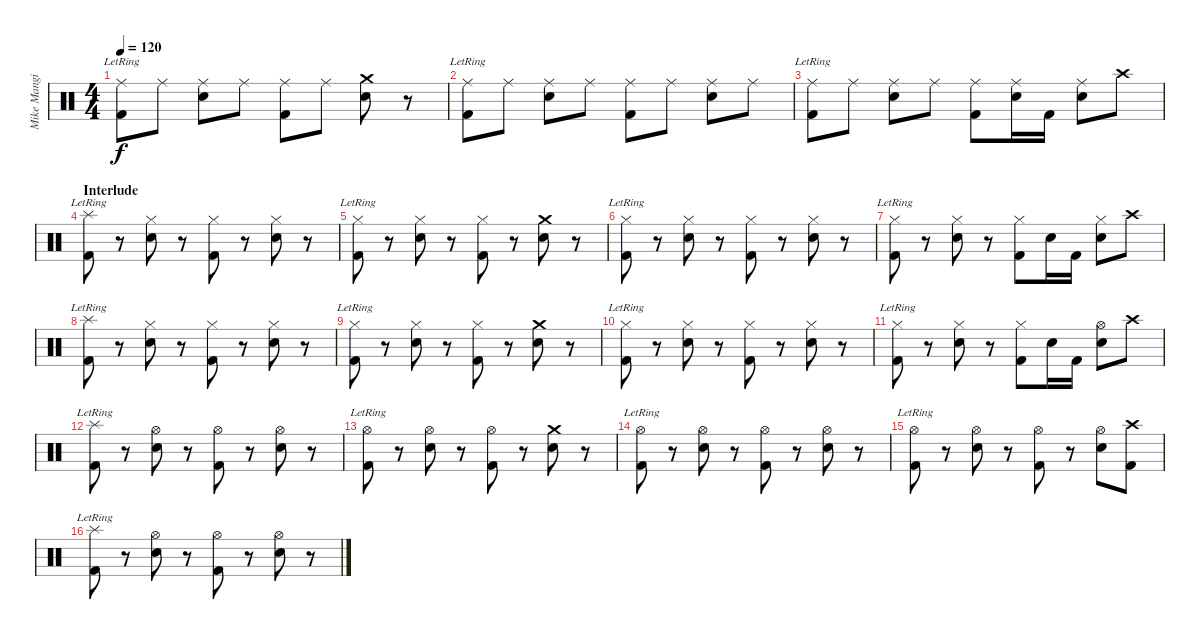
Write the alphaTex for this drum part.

\track ("Mike Mangini" "Mike Mangi") {instrument percussion}
\staff {score}
\articulation defaults
\ts (4 4)
\tempo 120
\clef neutral
\ks c
("Ride (middle)" "Kick (hit) 2"{lr}).8{dy f} "Ride (middle)".8 ("Ride (middle)" "Snare (hit) 2").8 "Ride (middle)".8 ("Ride (middle)" "Kick (hit) 2").8 "Ride (middle)".8 ("Crash medium (hit)" "Snare (hit) 2").8 r.8 |
("Ride (middle)" "Kick (hit) 2"{lr}).8 "Ride (middle)".8 ("Ride (middle)" "Snare (hit) 2").8 "Ride (middle)".8 ("Ride (middle)" "Kick (hit) 2").8 "Ride (middle)".8 ("Ride (middle)" "Snare (hit) 2").8 "Ride (middle)".8 |
("Ride (middle)" "Kick (hit) 2"{lr}).8 "Ride (middle)".8 ("Ride (middle)" "Snare (hit) 2").8 "Ride (middle)".8 ("Ride (middle)" "Kick (hit) 2").8 ("Ride (middle)" "Snare (hit) 2").16 "Kick (hit) 2".16 ("Ride (middle)" "Snare (hit) 2").8 "Crash high (hit)".8 |
\section ("" "Interlude")
("Splash (hit)" "Kick (hit) 2"{lr}).8 r.8 ("Hi-Hat (closed)" "Snare (hit) 2").8 r.8 ("Hi-Hat (closed)" "Kick (hit) 2").8 r.8 ("Hi-Hat (closed)" "Snare (hit) 2").8 r.8 |
("Hi-Hat (closed)" "Kick (hit) 2"{lr}).8 r.8 ("Hi-Hat (closed)" "Snare (hit) 2").8 r.8 ("Hi-Hat (closed)" "Kick (hit) 2").8 r.8 ("Crash medium (hit)" "Snare (hit) 2").8 r.8 |
("Hi-Hat (closed)" "Kick (hit) 2"{lr}).8 r.8 ("Hi-Hat (closed)" "Snare (hit) 2").8 r.8 ("Hi-Hat (closed)" "Kick (hit) 2").8 r.8 ("Hi-Hat (closed)" "Snare (hit) 2").8 r.8 |
("Hi-Hat (closed)" "Kick (hit) 2"{lr}).8 r.8 ("Hi-Hat (closed)" "Snare (hit) 2").8 r.8 ("Hi-Hat (closed)" "Kick (hit) 2").8 "Snare (hit) 2".16 "Kick (hit) 2".16 ("Hi-Hat (closed)" "Snare (hit) 2").8 "Crash high (hit)".8 |
("Splash (hit)" "Kick (hit) 2"{lr}).8 r.8 ("Hi-Hat (closed)" "Snare (hit) 2").8 r.8 ("Hi-Hat (closed)" "Kick (hit) 2").8 r.8 ("Hi-Hat (closed)" "Snare (hit) 2").8 r.8 |
("Hi-Hat (closed)" "Kick (hit) 2"{lr}).8 r.8 ("Hi-Hat (closed)" "Snare (hit) 2").8 r.8 ("Hi-Hat (closed)" "Kick (hit) 2").8 r.8 ("Crash medium (hit)" "Snare (hit) 2").8 r.8 |
("Hi-Hat (closed)" "Kick (hit) 2"{lr}).8 r.8 ("Hi-Hat (closed)" "Snare (hit) 2").8 r.8 ("Hi-Hat (closed)" "Kick (hit) 2").8 r.8 ("Hi-Hat (closed)" "Snare (hit) 2").8 r.8 |
("Hi-Hat (closed)" "Kick (hit) 2"{lr}).8 r.8 ("Hi-Hat (closed)" "Snare (hit) 2").8 r.8 ("Hi-Hat (closed)" "Kick (hit) 2").8 "Snare (hit) 2".16 "Kick (hit) 2".16 ("Hi-Hat (open)" "Snare (hit) 2").8 "Crash high (hit)".8 |
("Splash (hit)" "Kick (hit) 2"{lr}).8 r.8 ("Hi-Hat (open)" "Snare (hit) 2").8 r.8 ("Hi-Hat (open)" "Kick (hit) 2").8 r.8 ("Hi-Hat (open)" "Snare (hit) 2").8 r.8 |
("Hi-Hat (open)" "Kick (hit) 2"{lr}).8 r.8 ("Hi-Hat (open)" "Snare (hit) 2").8 r.8 ("Hi-Hat (open)" "Kick (hit) 2").8 r.8 ("Crash medium (hit)" "Snare (hit) 2").8 r.8 |
("Hi-Hat (open)" "Kick (hit) 2"{lr}).8 r.8 ("Hi-Hat (open)" "Snare (hit) 2").8 r.8 ("Hi-Hat (open)" "Kick (hit) 2").8 r.8 ("Hi-Hat (open)" "Snare (hit) 2").8 r.8 |
("Hi-Hat (open)" "Kick (hit) 2"{lr}).8 r.8 ("Hi-Hat (open)" "Snare (hit) 2").8 r.8 ("Hi-Hat (open)" "Kick (hit) 2").8 r.8 ("Hi-Hat (open)" "Snare (hit) 2").8 ("Crash high (hit)" "Kick (hit) 2").8 |
("Splash (hit)" "Kick (hit) 2"{lr}).8 r.8 ("Hi-Hat (open)" "Snare (hit) 2").8 r.8 ("Hi-Hat (open)" "Kick (hit) 2").8 r.8 ("Hi-Hat (open)" "Snare (hit) 2").8 r.8
